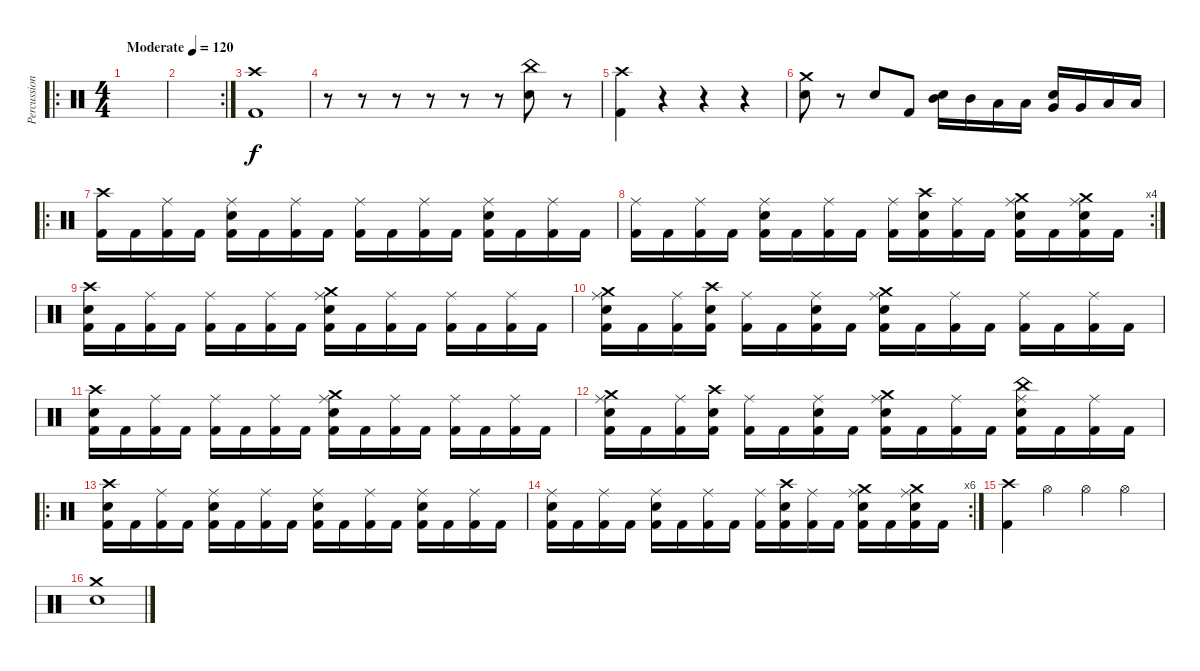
\track ("Percussion" "Percussion") {instrument percussion}
\staff {score}
\articulation defaults
\ro
\ts (4 4)
\tempo (120 "Moderate")
\clef neutral
\ks c
|
\rc 2
|
("Crash high (hit)" "Kick (hit) 2").1 |
r.8 r.8 r.8 r.8 r.8 r.8 ("China (hit)" "Snare (hit) 2").8 r.8 |
("Crash high (hit)" "Kick (hit) 2").4 r.4 r.4 r.4 |
("Crash medium (hit)" "Snare (hit) 2").8 r.8 "Snare (hit) 2".8 "Kick (hit) 2".8 ("Mid Tom (hit)" "Snare (hit) 2").16 "Mid Tom (hit)".16 "Low Tom (hit)".16 "Low Tom (hit)".16 ("Very Low Tom (hit)" "Snare (hit) 2").16 "Very Low Tom (hit)".16 "Low Floor Tom (hit)".16 "Low Floor Tom (hit)".16 |
\ro
("Crash high (hit)" "Kick (hit) 2").16 "Kick (hit) 2".16 ("Ride (middle)" "Kick (hit) 2").16 "Kick (hit) 2".16 ("Ride (middle)" "Snare (hit) 2" "Kick (hit) 2").16 "Kick (hit) 2".16 ("Ride (middle)" "Kick (hit) 2").16 "Kick (hit) 2".16 ("Ride (middle)" "Kick (hit) 2").16 "Kick (hit) 2".16 ("Ride (middle)" "Kick (hit) 2").16 "Kick (hit) 2".16 ("Ride (middle)" "Snare (hit) 2" "Kick (hit) 2").16 "Kick (hit) 2".16 ("Ride (middle)" "Kick (hit) 2").16 "Kick (hit) 2".16 |
\rc 4
("Ride (middle)" "Kick (hit) 2").16 "Kick (hit) 2".16 ("Ride (middle)" "Kick (hit) 2").16 "Kick (hit) 2".16 ("Ride (middle)" "Snare (hit) 2" "Kick (hit) 2").16 "Kick (hit) 2".16 ("Ride (middle)" "Kick (hit) 2").16 "Kick (hit) 2".16 ("Ride (middle)" "Kick (hit) 2").16 ("Crash high (hit)" "Snare (hit) 2" "Kick (hit) 2").16 ("Ride (middle)" "Kick (hit) 2").16 "Kick (hit) 2".16 ("Crash medium (hit)" "Ride (middle)" "Snare (hit) 2" "Kick (hit) 2").16 "Kick (hit) 2".16 ("Crash medium (hit)" "Ride (middle)" "Snare (hit) 2" "Kick (hit) 2").16 "Kick (hit) 2".16 |
("Crash high (hit)" "Snare (hit) 2" "Kick (hit) 2").16 "Kick (hit) 2".16 ("Ride (middle)" "Kick (hit) 2").16 "Kick (hit) 2".16 ("Ride (middle)" "Kick (hit) 2").16 "Kick (hit) 2".16 ("Ride (middle)" "Kick (hit) 2").16 "Kick (hit) 2".16 ("Crash medium (hit)" "Ride (middle)" "Snare (hit) 2" "Kick (hit) 2").16 "Kick (hit) 2".16 ("Ride (middle)" "Kick (hit) 2").16 "Kick (hit) 2".16 ("Ride (middle)" "Kick (hit) 2").16 "Kick (hit) 2".16 ("Ride (middle)" "Kick (hit) 2").16 "Kick (hit) 2".16 |
("Crash medium (hit)" "Ride (middle)" "Snare (hit) 2" "Kick (hit) 2").16 "Kick (hit) 2".16 ("Ride (middle)" "Kick (hit) 2").16 ("Crash high (hit)" "Snare (hit) 2" "Kick (hit) 2").16 ("Ride (middle)" "Kick (hit) 2").16 "Kick (hit) 2".16 ("Ride (middle)" "Snare (hit) 2" "Kick (hit) 2").16 "Kick (hit) 2".16 ("Crash medium (hit)" "Ride (middle)" "Snare (hit) 2" "Kick (hit) 2").16 "Kick (hit) 2".16 ("Ride (middle)" "Kick (hit) 2").16 "Kick (hit) 2".16 ("Ride (middle)" "Kick (hit) 2").16 "Kick (hit) 2".16 ("Ride (middle)" "Kick (hit) 2").16 "Kick (hit) 2".16 |
("Crash high (hit)" "Snare (hit) 2" "Kick (hit) 2").16 "Kick (hit) 2".16 ("Ride (middle)" "Kick (hit) 2").16 "Kick (hit) 2".16 ("Ride (middle)" "Kick (hit) 2").16 "Kick (hit) 2".16 ("Ride (middle)" "Kick (hit) 2").16 "Kick (hit) 2".16 ("Crash medium (hit)" "Ride (middle)" "Snare (hit) 2" "Kick (hit) 2").16 "Kick (hit) 2".16 ("Ride (middle)" "Kick (hit) 2").16 "Kick (hit) 2".16 ("Ride (middle)" "Kick (hit) 2").16 "Kick (hit) 2".16 ("Ride (middle)" "Kick (hit) 2").16 "Kick (hit) 2".16 |
("Crash medium (hit)" "Ride (middle)" "Snare (hit) 2" "Kick (hit) 2").16 "Kick (hit) 2".16 ("Ride (middle)" "Kick (hit) 2").16 ("Crash high (hit)" "Snare (hit) 2" "Kick (hit) 2").16 ("Ride (middle)" "Kick (hit) 2").16 "Kick (hit) 2".16 ("Ride (middle)" "Snare (hit) 2" "Kick (hit) 2").16 "Kick (hit) 2".16 ("Crash medium (hit)" "Ride (middle)" "Snare (hit) 2" "Kick (hit) 2").16 "Kick (hit) 2".16 ("Ride (middle)" "Kick (hit) 2").16 "Kick (hit) 2".16 ("China (hit)" "Ride (middle)" "Snare (hit) 2" "Kick (hit) 2").16 "Kick (hit) 2".16 ("Ride (middle)" "Kick (hit) 2").16 "Kick (hit) 2".16 |
\ro
("Crash high (hit)" "Snare (hit) 2" "Kick (hit) 2").16 "Kick (hit) 2".16 ("Ride (middle)" "Kick (hit) 2").16 "Kick (hit) 2".16 ("Ride (middle)" "Snare (hit) 2" "Kick (hit) 2").16 "Kick (hit) 2".16 ("Ride (middle)" "Kick (hit) 2").16 "Kick (hit) 2".16 ("Ride (middle)" "Snare (hit) 2" "Kick (hit) 2").16 "Kick (hit) 2".16 ("Ride (middle)" "Kick (hit) 2").16 "Kick (hit) 2".16 ("Ride (middle)" "Snare (hit) 2" "Kick (hit) 2").16 "Kick (hit) 2".16 ("Ride (middle)" "Kick (hit) 2").16 "Kick (hit) 2".16 |
\rc 6
("Ride (middle)" "Snare (hit) 2" "Kick (hit) 2").16 "Kick (hit) 2".16 ("Ride (middle)" "Kick (hit) 2").16 "Kick (hit) 2".16 ("Ride (middle)" "Snare (hit) 2" "Kick (hit) 2").16 "Kick (hit) 2".16 ("Ride (middle)" "Kick (hit) 2").16 "Kick (hit) 2".16 ("Ride (middle)" "Kick (hit) 2").16 ("Crash high (hit)" "Snare (hit) 2" "Kick (hit) 2").16 ("Ride (middle)" "Kick (hit) 2").16 "Kick (hit) 2".16 ("Crash medium (hit)" "Ride (middle)" "Snare (hit) 2" "Kick (hit) 2").16 "Kick (hit) 2".16 ("Crash medium (hit)" "Ride (middle)" "Snare (hit) 2" "Kick (hit) 2").16 "Kick (hit) 2".16 |
("Crash high (hit)" "Kick (hit) 2").4 "Hi-Hat (open)".4 "Hi-Hat (open)".4 "Hi-Hat (open)".4 |
("Crash medium (hit)" "Snare (hit) 2").1
